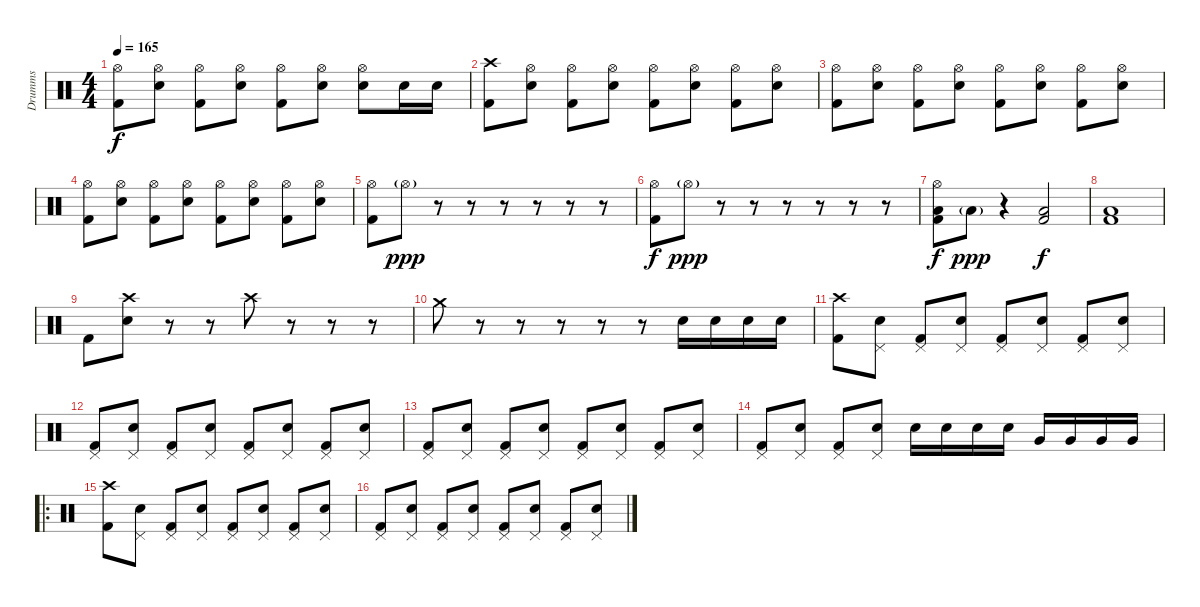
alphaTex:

\track ("Drumms" "Drumms") {instrument percussion}
\staff {score}
\articulation defaults
\ts (4 4)
\tempo 165
\clef neutral
\ks c
("Hi-Hat (open)" "Kick (hit) 2").8{dy f} ("Hi-Hat (open)" "Electric Snare (hit)").8 ("Hi-Hat (open)" "Kick (hit) 2").8 ("Hi-Hat (open)" "Electric Snare (hit)").8 ("Hi-Hat (open)" "Kick (hit) 2").8 ("Hi-Hat (open)" "Electric Snare (hit)").8 ("Hi-Hat (open)" "Electric Snare (hit)").8 "Electric Snare (hit)".16 "Electric Snare (hit)".16 |
("Crash high (hit)" "Kick (hit) 2").8 ("Hi-Hat (open)" "Electric Snare (hit)").8 ("Hi-Hat (open)" "Kick (hit) 2").8 ("Hi-Hat (open)" "Electric Snare (hit)").8 ("Hi-Hat (open)" "Kick (hit) 2").8 ("Hi-Hat (open)" "Electric Snare (hit)").8 ("Hi-Hat (open)" "Kick (hit) 2").8 ("Hi-Hat (open)" "Electric Snare (hit)").8 |
("Hi-Hat (open)" "Kick (hit) 2").8 ("Hi-Hat (open)" "Electric Snare (hit)").8 ("Hi-Hat (open)" "Kick (hit) 2").8 ("Hi-Hat (open)" "Electric Snare (hit)").8 ("Hi-Hat (open)" "Kick (hit) 2").8 ("Hi-Hat (open)" "Electric Snare (hit)").8 ("Hi-Hat (open)" "Kick (hit) 2").8 ("Hi-Hat (open)" "Electric Snare (hit)").8 |
("Hi-Hat (open)" "Kick (hit) 2").8 ("Hi-Hat (open)" "Electric Snare (hit)").8 ("Hi-Hat (open)" "Kick (hit) 2").8 ("Hi-Hat (open)" "Electric Snare (hit)").8 ("Hi-Hat (open)" "Kick (hit) 2").8 ("Hi-Hat (open)" "Electric Snare (hit)").8 ("Hi-Hat (open)" "Kick (hit) 2").8 ("Hi-Hat (open)" "Electric Snare (hit)").8 |
("Hi-Hat (open)" "Kick (hit) 2").8 "Hi-Hat (open)"{g}.8{dy ppp} r.8 r.8 r.8 r.8 r.8 r.8 |
("Hi-Hat (open)" "Kick (hit) 2").8{dy f} "Hi-Hat (open)"{g}.8{dy ppp} r.8 r.8 r.8 r.8 r.8 r.8 |
("Hi-Hat (open)" "Low Floor Tom (hit)" "Kick (hit) 2").8{dy f} "Low Tom (hit)"{g}.8{dy ppp} r.4 ("Low Floor Tom (hit)" "Kick (hit) 2").2{dy f} |
("Low Floor Tom (hit)" "Kick (hit) 2").1 |
"Kick (hit) 2".8 ("Crash high (hit)" "Electric Snare (hit)").8 r.8 r.8 "Crash high (hit)".8 r.8 r.8 r.8 |
"Crash medium (hit)".8 r.8 r.8 r.8 r.8 r.8 "Electric Snare (hit)".16 "Electric Snare (hit)".16 "Electric Snare (hit)".16 "Electric Snare (hit)".16 |
("Crash high (hit)" "Kick (hit) 2").8 ("Pedal Hi-Hat (hit)" "Electric Snare (hit)").8 ("Pedal Hi-Hat (hit)" "Kick (hit) 2").8 ("Pedal Hi-Hat (hit)" "Electric Snare (hit)").8 ("Pedal Hi-Hat (hit)" "Kick (hit) 2").8 ("Pedal Hi-Hat (hit)" "Electric Snare (hit)").8 ("Pedal Hi-Hat (hit)" "Kick (hit) 2").8 ("Pedal Hi-Hat (hit)" "Electric Snare (hit)").8 |
("Pedal Hi-Hat (hit)" "Kick (hit) 2").8 ("Pedal Hi-Hat (hit)" "Electric Snare (hit)").8 ("Pedal Hi-Hat (hit)" "Kick (hit) 2").8 ("Pedal Hi-Hat (hit)" "Electric Snare (hit)").8 ("Pedal Hi-Hat (hit)" "Kick (hit) 2").8 ("Pedal Hi-Hat (hit)" "Electric Snare (hit)").8 ("Pedal Hi-Hat (hit)" "Kick (hit) 2").8 ("Pedal Hi-Hat (hit)" "Electric Snare (hit)").8 |
("Pedal Hi-Hat (hit)" "Kick (hit) 2").8 ("Pedal Hi-Hat (hit)" "Electric Snare (hit)").8 ("Pedal Hi-Hat (hit)" "Kick (hit) 2").8 ("Pedal Hi-Hat (hit)" "Electric Snare (hit)").8 ("Pedal Hi-Hat (hit)" "Kick (hit) 2").8 ("Pedal Hi-Hat (hit)" "Electric Snare (hit)").8 ("Pedal Hi-Hat (hit)" "Kick (hit) 2").8 ("Pedal Hi-Hat (hit)" "Electric Snare (hit)").8 |
("Pedal Hi-Hat (hit)" "Kick (hit) 2").8 ("Pedal Hi-Hat (hit)" "Electric Snare (hit)").8 ("Pedal Hi-Hat (hit)" "Kick (hit) 2").8 ("Pedal Hi-Hat (hit)" "Electric Snare (hit)").8 "Electric Snare (hit)".16 "Electric Snare (hit)".16 "Electric Snare (hit)".16 "Electric Snare (hit)".16 "Very Low Tom (hit)".16 "Very Low Tom (hit)".16 "Very Low Tom (hit)".16 "Very Low Tom (hit)".16 |
\ro
("Crash high (hit)" "Kick (hit) 2").8 ("Pedal Hi-Hat (hit)" "Electric Snare (hit)").8 ("Pedal Hi-Hat (hit)" "Kick (hit) 2").8 ("Pedal Hi-Hat (hit)" "Electric Snare (hit)").8 ("Pedal Hi-Hat (hit)" "Kick (hit) 2").8 ("Pedal Hi-Hat (hit)" "Electric Snare (hit)").8 ("Pedal Hi-Hat (hit)" "Kick (hit) 2").8 ("Pedal Hi-Hat (hit)" "Electric Snare (hit)").8 |
("Pedal Hi-Hat (hit)" "Kick (hit) 2").8 ("Pedal Hi-Hat (hit)" "Electric Snare (hit)").8 ("Pedal Hi-Hat (hit)" "Kick (hit) 2").8 ("Pedal Hi-Hat (hit)" "Electric Snare (hit)").8 ("Pedal Hi-Hat (hit)" "Kick (hit) 2").8 ("Pedal Hi-Hat (hit)" "Electric Snare (hit)").8 ("Pedal Hi-Hat (hit)" "Kick (hit) 2").8 ("Pedal Hi-Hat (hit)" "Electric Snare (hit)").8
